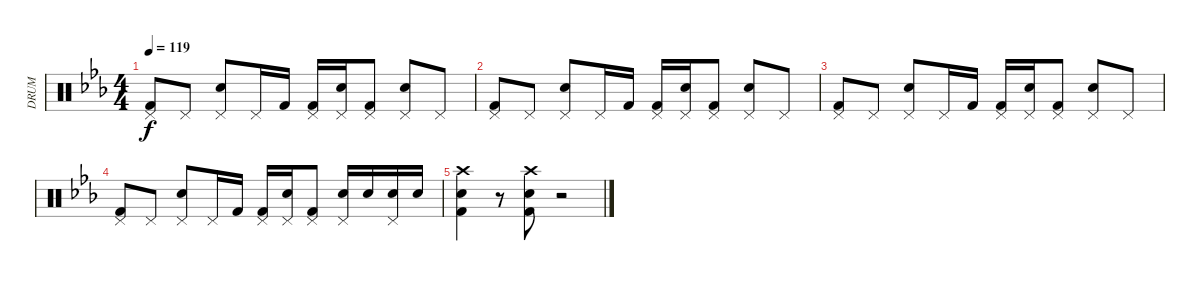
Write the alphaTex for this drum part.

\track ("DRUM" "DRUM") {instrument percussion}
\staff {score}
\articulation defaults
\ts (4 4)
\tempo 119
\clef neutral
\ks eb
("Pedal Hi-Hat (hit)" "Kick (hit) 2").8{dy f} "Pedal Hi-Hat (hit)".8 ("Pedal Hi-Hat (hit)" "Electric Snare (hit)").8 "Pedal Hi-Hat (hit)".16 "Kick (hit) 2".16 ("Pedal Hi-Hat (hit)" "Kick (hit) 2").16 ("Pedal Hi-Hat (hit)" "Electric Snare (hit)").16 ("Pedal Hi-Hat (hit)" "Kick (hit) 2").8 ("Pedal Hi-Hat (hit)" "Electric Snare (hit)").8 "Pedal Hi-Hat (hit)".8 |
("Pedal Hi-Hat (hit)" "Kick (hit) 2").8 "Pedal Hi-Hat (hit)".8 ("Pedal Hi-Hat (hit)" "Electric Snare (hit)").8 "Pedal Hi-Hat (hit)".16 "Kick (hit) 2".16 ("Pedal Hi-Hat (hit)" "Kick (hit) 2").16 ("Pedal Hi-Hat (hit)" "Electric Snare (hit)").16 ("Pedal Hi-Hat (hit)" "Kick (hit) 2").8 ("Pedal Hi-Hat (hit)" "Electric Snare (hit)").8 "Pedal Hi-Hat (hit)".8 |
("Pedal Hi-Hat (hit)" "Kick (hit) 2").8 "Pedal Hi-Hat (hit)".8 ("Pedal Hi-Hat (hit)" "Electric Snare (hit)").8 "Pedal Hi-Hat (hit)".16 "Kick (hit) 2".16 ("Pedal Hi-Hat (hit)" "Kick (hit) 2").16 ("Pedal Hi-Hat (hit)" "Electric Snare (hit)").16 ("Pedal Hi-Hat (hit)" "Kick (hit) 2").8 ("Pedal Hi-Hat (hit)" "Electric Snare (hit)").8 "Pedal Hi-Hat (hit)".8 |
("Pedal Hi-Hat (hit)" "Kick (hit) 2").8 "Pedal Hi-Hat (hit)".8 ("Pedal Hi-Hat (hit)" "Electric Snare (hit)").8 "Pedal Hi-Hat (hit)".16 "Kick (hit) 2".16 ("Pedal Hi-Hat (hit)" "Kick (hit) 2").16 ("Pedal Hi-Hat (hit)" "Electric Snare (hit)").16 ("Pedal Hi-Hat (hit)" "Kick (hit) 2").8 ("Pedal Hi-Hat (hit)" "Electric Snare (hit)").16 "Electric Snare (hit)".16 ("Pedal Hi-Hat (hit)" "Electric Snare (hit)").16 "Electric Snare (hit)".16 |
("Crash high (hit)" "Electric Snare (hit)" "Kick (hit) 2").4 r.8 ("Crash high (hit)" "Electric Snare (hit)" "Kick (hit) 2").8 r.2
